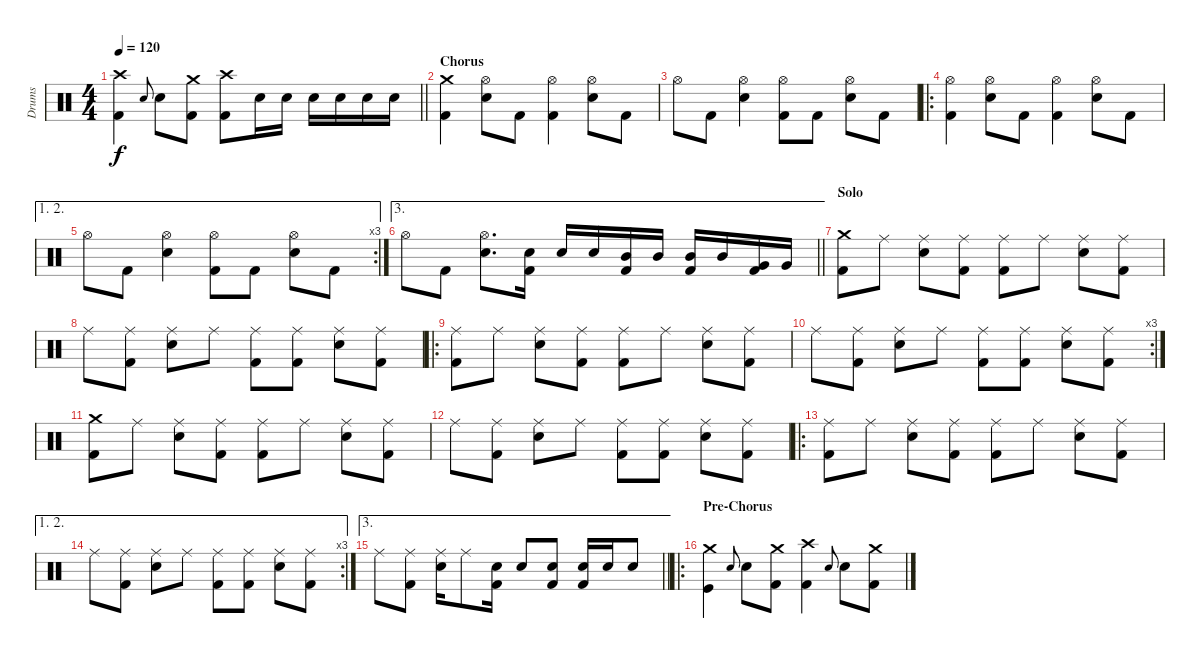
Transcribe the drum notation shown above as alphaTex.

\track ("Drums" "Drums") {instrument percussion}
\staff {score}
\articulation defaults
\ts (4 4)
\tempo 120
\clef neutral
\barLineRight lightlight
\ks c
("Crash high (hit)" "Kick (hit) 2").4{dy f} "Snare (hit) 2".8{gr onbeat} "Snare (hit) 2".8 ("Crash medium (hit)" "Kick (hit) 2").8 ("Crash high (hit)" "Kick (hit) 2").8 "Snare (hit) 2".16 "Snare (hit) 2".16 "Snare (hit) 2".16 "Snare (hit) 2".16 "Snare (hit) 2".16 "Snare (hit) 2".16 |
\section ("" "Chorus")
("Crash medium (hit)" "Kick (hit) 2").4 ("Hi-Hat (open)" "Snare (hit) 2").8 "Kick (hit) 2".8 ("Hi-Hat (open)" "Kick (hit) 2").4 ("Hi-Hat (open)" "Snare (hit) 2").8 "Kick (hit) 2".8 |
"Hi-Hat (open)".8 "Kick (hit) 2".8 ("Hi-Hat (open)" "Snare (hit) 2").4 ("Hi-Hat (open)" "Kick (hit) 2").8 "Kick (hit) 2".8 ("Hi-Hat (open)" "Snare (hit) 2").8 "Kick (hit) 2".8 |
\ro
("Hi-Hat (open)" "Kick (hit) 2").4 ("Hi-Hat (open)" "Snare (hit) 2").8 "Kick (hit) 2".8 ("Hi-Hat (open)" "Kick (hit) 2").4 ("Hi-Hat (open)" "Snare (hit) 2").8 "Kick (hit) 2".8 |
\ae (1 2)
\rc 3 "Hi-Hat (open)".8 "Kick (hit) 2".8
("Hi-Hat (open)" "Snare (hit) 2").4 ("Hi-Hat (open)" "Kick (hit) 2").8 "Kick (hit) 2".8 ("Hi-Hat (open)" "Snare (hit) 2").8 "Kick (hit) 2".8 |
\ae 3
\barLineRight lightlight "Hi-Hat (open)".8 "Kick (hit) 2".8
("Hi-Hat (open)" "Snare (hit) 2").8{d} ("Snare (hit) 2" "Kick (hit) 2").16 "Snare (hit) 2".16 "Snare (hit) 2".16 ("Mid Tom (hit)" "Kick (hit) 2").16 "Mid Tom (hit)".16 ("Mid Tom (hit)" "Kick (hit) 2").16 "Mid Tom (hit)".16 ("Very Low Tom (hit)" "Kick (hit) 2").16 "Very Low Tom (hit)".16 |
\section ("" "Solo")
("Crash medium (hit)" "Kick (hit) 2").8 "Ride (middle)".8 ("Ride (middle)" "Snare (hit) 2").8 ("Ride (middle)" "Kick (hit) 2").8 ("Ride (middle)" "Kick (hit) 2").8 "Ride (middle)".8 ("Ride (middle)" "Snare (hit) 2").8 ("Ride (middle)" "Kick (hit) 2").8 |
"Ride (middle)".8 ("Ride (middle)" "Kick (hit) 2").8 ("Ride (middle)" "Snare (hit) 2").8 "Ride (middle)".8 ("Ride (middle)" "Kick (hit) 2").8 ("Ride (middle)" "Kick (hit) 2").8 ("Ride (middle)" "Snare (hit) 2").8 ("Ride (middle)" "Kick (hit) 2").8 |
\ro
("Ride (middle)" "Kick (hit) 2").8 "Ride (middle)".8 ("Ride (middle)" "Snare (hit) 2").8 ("Ride (middle)" "Kick (hit) 2").8 ("Ride (middle)" "Kick (hit) 2").8 "Ride (middle)".8 ("Ride (middle)" "Snare (hit) 2").8 ("Ride (middle)" "Kick (hit) 2").8 |
\rc 3 "Ride (middle)".8
("Ride (middle)" "Kick (hit) 2").8 ("Ride (middle)" "Snare (hit) 2").8 "Ride (middle)".8 ("Ride (middle)" "Kick (hit) 2").8 ("Ride (middle)" "Kick (hit) 2").8 ("Ride (middle)" "Snare (hit) 2").8 ("Ride (middle)" "Kick (hit) 2").8 |
("Crash medium (hit)" "Kick (hit) 2").8 "Ride (middle)".8 ("Ride (middle)" "Snare (hit) 2").8 ("Ride (middle)" "Kick (hit) 2").8 ("Ride (middle)" "Kick (hit) 2").8 "Ride (middle)".8 ("Ride (middle)" "Snare (hit) 2").8 ("Ride (middle)" "Kick (hit) 2").8 |
"Ride (middle)".8 ("Ride (middle)" "Kick (hit) 2").8 ("Ride (middle)" "Snare (hit) 2").8 "Ride (middle)".8 ("Ride (middle)" "Kick (hit) 2").8 ("Ride (middle)" "Kick (hit) 2").8 ("Ride (middle)" "Snare (hit) 2").8 ("Ride (middle)" "Kick (hit) 2").8 |
\ro
("Ride (middle)" "Kick (hit) 2").8 "Ride (middle)".8 ("Ride (middle)" "Snare (hit) 2").8 ("Ride (middle)" "Kick (hit) 2").8 ("Ride (middle)" "Kick (hit) 2").8 "Ride (middle)".8 ("Ride (middle)" "Snare (hit) 2").8 ("Ride (middle)" "Kick (hit) 2").8 |
\ae (1 2)
\rc 3 "Ride (middle)".8
("Ride (middle)" "Kick (hit) 2").8 ("Ride (middle)" "Snare (hit) 2").8 "Ride (middle)".8 ("Ride (middle)" "Kick (hit) 2").8 ("Ride (middle)" "Kick (hit) 2").8 ("Ride (middle)" "Snare (hit) 2").8 ("Ride (middle)" "Kick (hit) 2").8 |
\ae 3
\barLineRight lightlight "Ride (middle)".8
("Ride (middle)" "Kick (hit) 2").8 ("Ride (middle)" "Snare (hit) 2").16 "Ride (middle)".8 ("Snare (hit) 2" "Kick (hit) 2").16 "Snare (hit) 2".8 ("Snare (hit) 2" "Kick (hit) 2").8 ("Snare (hit) 2" "Kick (hit) 2").16 "Snare (hit) 2".16 "Snare (hit) 2".8 |
\ro
\section ("" "Pre-Chorus")
("Crash medium (hit)" "Kick (hit)").4 "Snare (hit) 2".8{gr onbeat} "Snare (hit) 2".8 ("Crash medium (hit)" "Kick (hit) 2").8 ("Crash high (hit)" "Kick (hit) 2").4 "Snare (hit) 2".8{gr onbeat} "Snare (hit) 2".8 ("Crash medium (hit)" "Kick (hit) 2").8
